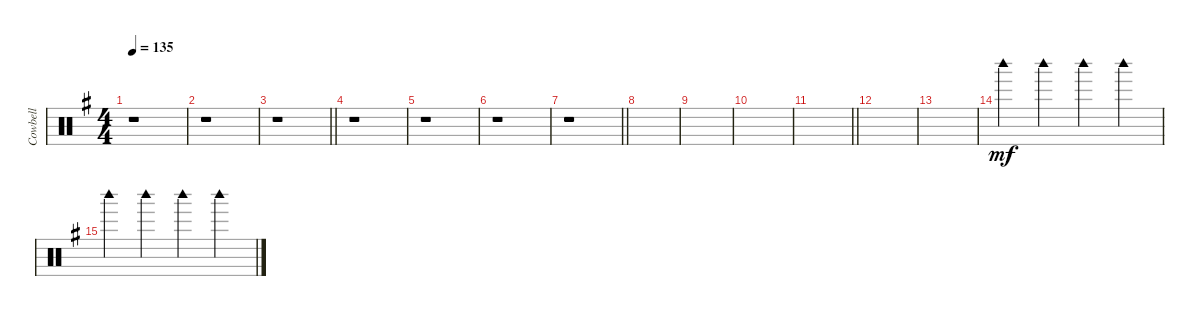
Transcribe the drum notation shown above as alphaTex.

\track ("Cowbell" "Cowbell") {instrument percussion}
\staff {score}
\articulation defaults
\ts (4 4)
\tempo 135
\clef neutral
\ks g
r.1{dy mf} |
r.1 |
\barLineRight lightlight
r.1 |
r.1 |
r.1 |
r.1 |
\barLineRight lightlight
r.1 |
|
|
|
\barLineRight lightlight
|
|
|
"Woodblock high (hit)".4 "Woodblock high (hit)".4 "Woodblock high (hit)".4 "Woodblock high (hit)".4 |
"Woodblock high (hit)".4 "Woodblock high (hit)".4 "Woodblock high (hit)".4 "Woodblock high (hit)".4
